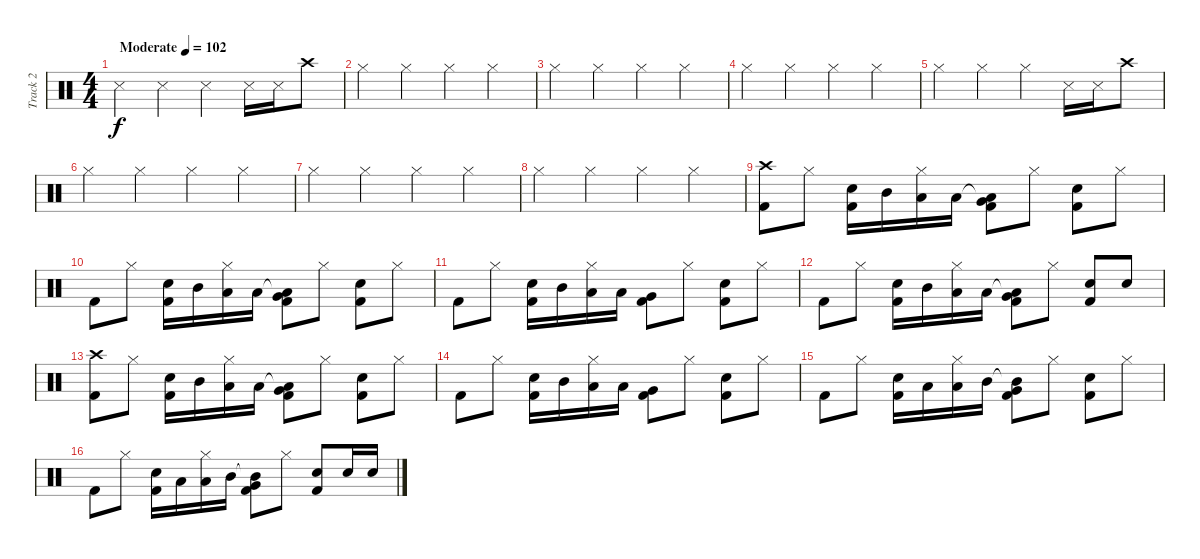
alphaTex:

\track ("Track 2" "Track 2") {instrument percussion}
\staff {score}
\articulation defaults
\ts (4 4)
\tempo (102 "Moderate")
\clef neutral
\ks c "Snare (side stick) 3".4{dy f} "Snare (side stick) 3".4 "Snare (side stick) 3".4 "Snare (side stick) 3".16 "Snare (side stick) 3".16 "Crash high (hit)".8
|
"Hi-Hat (closed)".4 "Hi-Hat (closed)".4 "Hi-Hat (closed)".4 "Hi-Hat (closed)".4 |
"Hi-Hat (closed)".4 "Hi-Hat (closed)".4 "Hi-Hat (closed)".4 "Hi-Hat (closed)".4 |
"Hi-Hat (closed)".4 "Hi-Hat (closed)".4 "Hi-Hat (closed)".4 "Hi-Hat (closed)".4 |
"Hi-Hat (closed)".4 "Hi-Hat (closed)".4 "Hi-Hat (closed)".4 "Snare (side stick) 3".16 "Snare (side stick) 3".16 "Crash high (hit)".8 |
"Hi-Hat (closed)".4 "Hi-Hat (closed)".4 "Hi-Hat (closed)".4 "Hi-Hat (closed)".4 |
"Hi-Hat (closed)".4 "Hi-Hat (closed)".4 "Hi-Hat (closed)".4 "Hi-Hat (closed)".4 |
"Hi-Hat (closed)".4 "Hi-Hat (closed)".4 "Hi-Hat (closed)".4 "Hi-Hat (closed)".4 |
("Crash high (hit)" "Kick (hit) 2").8 "Hi-Hat (closed)".8 ("Electric Snare (hit)" "Kick (hit) 2").16 "Mid Tom (hit)".16 ("Hi-Hat (closed)" "Low Tom (hit)").16 "Low Tom (hit)".16 ("Low Tom (hit)"{t} "Very Low Tom (hit)" "Kick (hit) 2").8 "Hi-Hat (closed)".8 ("Electric Snare (hit)" "Kick (hit) 2").8 "Hi-Hat (closed)".8 |
"Kick (hit) 2".8 "Hi-Hat (closed)".8 ("Electric Snare (hit)" "Kick (hit) 2").16 "Mid Tom (hit)".16 ("Hi-Hat (closed)" "Low Tom (hit)").16 "Low Tom (hit)".16 ("Low Tom (hit)"{t} "Very Low Tom (hit)" "Kick (hit) 2").8 "Hi-Hat (closed)".8 ("Electric Snare (hit)" "Kick (hit) 2").8 "Hi-Hat (closed)".8 |
"Kick (hit) 2".8 "Hi-Hat (closed)".8 ("Electric Snare (hit)" "Kick (hit) 2").16 "Mid Tom (hit)".16 ("Hi-Hat (closed)" "Low Tom (hit)").16 "Low Tom (hit)".16 ("Very Low Tom (hit)" "Kick (hit) 2").8 "Hi-Hat (closed)".8 ("Electric Snare (hit)" "Kick (hit) 2").8 "Hi-Hat (closed)".8 |
"Kick (hit) 2".8 "Hi-Hat (closed)".8 ("Electric Snare (hit)" "Kick (hit) 2").16 "Mid Tom (hit)".16 ("Hi-Hat (closed)" "Low Tom (hit)").16 "Low Tom (hit)".16 ("Low Tom (hit)"{t} "Very Low Tom (hit)" "Kick (hit) 2").8 "Hi-Hat (closed)".8 ("Electric Snare (hit)" "Kick (hit) 2").8 "Electric Snare (hit)".8 |
("Crash high (hit)" "Kick (hit) 2").8 "Hi-Hat (closed)".8 ("Electric Snare (hit)" "Kick (hit) 2").16 "Mid Tom (hit)".16 ("Hi-Hat (closed)" "Low Tom (hit)").16 "Low Tom (hit)".16 ("Low Tom (hit)"{t} "Very Low Tom (hit)" "Kick (hit) 2").8 "Hi-Hat (closed)".8 ("Electric Snare (hit)" "Kick (hit) 2").8 "Hi-Hat (closed)".8 |
"Kick (hit) 2".8 "Hi-Hat (closed)".8 ("Electric Snare (hit)" "Kick (hit) 2").16 "Mid Tom (hit)".16 ("Hi-Hat (closed)" "Low Tom (hit)").16 "Low Tom (hit)".16 ("Very Low Tom (hit)" "Kick (hit) 2").8 "Hi-Hat (closed)".8 ("Electric Snare (hit)" "Kick (hit) 2").8 "Hi-Hat (closed)".8 |
"Kick (hit) 2".8 "Hi-Hat (closed)".8 ("Electric Snare (hit)" "Kick (hit) 2").16 "Low Tom (hit)".16 ("Hi-Hat (closed)" "Low Tom (hit)").16 "Mid Tom (hit)".16 ("Mid Tom (hit)"{t} "Very Low Tom (hit)" "Kick (hit) 2").8 "Hi-Hat (closed)".8 ("Electric Snare (hit)" "Kick (hit) 2").8 "Hi-Hat (closed)".8 |
"Kick (hit) 2".8 "Hi-Hat (closed)".8 ("Electric Snare (hit)" "Kick (hit) 2").16 "Low Tom (hit)".16 ("Hi-Hat (closed)" "Low Tom (hit)").16 "Mid Tom (hit)".16 ("Mid Tom (hit)"{t} "Very Low Tom (hit)" "Kick (hit) 2").8 "Hi-Hat (closed)".8 ("Electric Snare (hit)" "Kick (hit) 2").8 "Electric Snare (hit)".16 "Electric Snare (hit)".16
